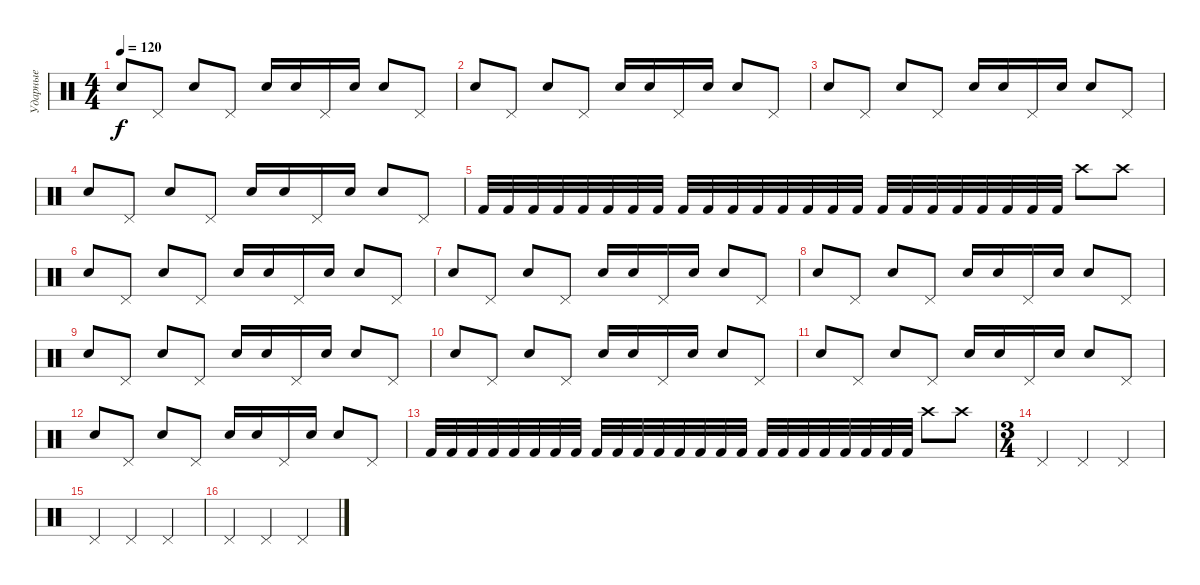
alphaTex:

\track ("Ударные" "Ударные") {instrument percussion}
\staff {score}
\articulation defaults
\ts (4 4)
\tempo 120
\clef neutral
\ks c "Snare (hit) 2".8{dy f} "Pedal Hi-Hat (hit)".8 "Snare (hit) 2".8 "Pedal Hi-Hat (hit)".8 "Snare (hit) 2".16 "Snare (hit) 2".16 "Pedal Hi-Hat (hit)".16 "Snare (hit) 2".16 "Snare (hit) 2".8 "Pedal Hi-Hat (hit)".8
|
"Snare (hit) 2".8 "Pedal Hi-Hat (hit)".8 "Snare (hit) 2".8 "Pedal Hi-Hat (hit)".8 "Snare (hit) 2".16 "Snare (hit) 2".16 "Pedal Hi-Hat (hit)".16 "Snare (hit) 2".16 "Snare (hit) 2".8 "Pedal Hi-Hat (hit)".8 |
"Snare (hit) 2".8 "Pedal Hi-Hat (hit)".8 "Snare (hit) 2".8 "Pedal Hi-Hat (hit)".8 "Snare (hit) 2".16 "Snare (hit) 2".16 "Pedal Hi-Hat (hit)".16 "Snare (hit) 2".16 "Snare (hit) 2".8 "Pedal Hi-Hat (hit)".8 |
"Snare (hit) 2".8 "Pedal Hi-Hat (hit)".8 "Snare (hit) 2".8 "Pedal Hi-Hat (hit)".8 "Snare (hit) 2".16 "Snare (hit) 2".16 "Pedal Hi-Hat (hit)".16 "Snare (hit) 2".16 "Snare (hit) 2".8 "Pedal Hi-Hat (hit)".8 |
"Kick (hit) 2".32 "Kick (hit) 2".32 "Kick (hit) 2".32 "Kick (hit) 2".32 "Kick (hit) 2".32 "Kick (hit) 2".32 "Kick (hit) 2".32 "Kick (hit) 2".32 "Kick (hit) 2".32 "Kick (hit) 2".32 "Kick (hit) 2".32 "Kick (hit) 2".32 "Kick (hit) 2".32 "Kick (hit) 2".32 "Kick (hit) 2".32 "Kick (hit) 2".32 "Kick (hit) 2".32 "Kick (hit) 2".32 "Kick (hit) 2".32 "Kick (hit) 2".32 "Kick (hit) 2".32 "Kick (hit) 2".32 "Kick (hit) 2".32 "Kick (hit) 2".32 "Crash high (hit)".8 "Crash high (hit)".8 |
"Snare (hit) 2".8 "Pedal Hi-Hat (hit)".8 "Snare (hit) 2".8 "Pedal Hi-Hat (hit)".8 "Snare (hit) 2".16 "Snare (hit) 2".16 "Pedal Hi-Hat (hit)".16 "Snare (hit) 2".16 "Snare (hit) 2".8 "Pedal Hi-Hat (hit)".8 |
"Snare (hit) 2".8 "Pedal Hi-Hat (hit)".8 "Snare (hit) 2".8 "Pedal Hi-Hat (hit)".8 "Snare (hit) 2".16 "Snare (hit) 2".16 "Pedal Hi-Hat (hit)".16 "Snare (hit) 2".16 "Snare (hit) 2".8 "Pedal Hi-Hat (hit)".8 |
"Snare (hit) 2".8 "Pedal Hi-Hat (hit)".8 "Snare (hit) 2".8 "Pedal Hi-Hat (hit)".8 "Snare (hit) 2".16 "Snare (hit) 2".16 "Pedal Hi-Hat (hit)".16 "Snare (hit) 2".16 "Snare (hit) 2".8 "Pedal Hi-Hat (hit)".8 |
"Snare (hit) 2".8 "Pedal Hi-Hat (hit)".8 "Snare (hit) 2".8 "Pedal Hi-Hat (hit)".8 "Snare (hit) 2".16 "Snare (hit) 2".16 "Pedal Hi-Hat (hit)".16 "Snare (hit) 2".16 "Snare (hit) 2".8 "Pedal Hi-Hat (hit)".8 |
"Snare (hit) 2".8 "Pedal Hi-Hat (hit)".8 "Snare (hit) 2".8 "Pedal Hi-Hat (hit)".8 "Snare (hit) 2".16 "Snare (hit) 2".16 "Pedal Hi-Hat (hit)".16 "Snare (hit) 2".16 "Snare (hit) 2".8 "Pedal Hi-Hat (hit)".8 |
"Snare (hit) 2".8 "Pedal Hi-Hat (hit)".8 "Snare (hit) 2".8 "Pedal Hi-Hat (hit)".8 "Snare (hit) 2".16 "Snare (hit) 2".16 "Pedal Hi-Hat (hit)".16 "Snare (hit) 2".16 "Snare (hit) 2".8 "Pedal Hi-Hat (hit)".8 |
"Snare (hit) 2".8 "Pedal Hi-Hat (hit)".8 "Snare (hit) 2".8 "Pedal Hi-Hat (hit)".8 "Snare (hit) 2".16 "Snare (hit) 2".16 "Pedal Hi-Hat (hit)".16 "Snare (hit) 2".16 "Snare (hit) 2".8 "Pedal Hi-Hat (hit)".8 |
"Kick (hit) 2".32 "Kick (hit) 2".32 "Kick (hit) 2".32 "Kick (hit) 2".32 "Kick (hit) 2".32 "Kick (hit) 2".32 "Kick (hit) 2".32 "Kick (hit) 2".32 "Kick (hit) 2".32 "Kick (hit) 2".32 "Kick (hit) 2".32 "Kick (hit) 2".32 "Kick (hit) 2".32 "Kick (hit) 2".32 "Kick (hit) 2".32 "Kick (hit) 2".32 "Kick (hit) 2".32 "Kick (hit) 2".32 "Kick (hit) 2".32 "Kick (hit) 2".32 "Kick (hit) 2".32 "Kick (hit) 2".32 "Kick (hit) 2".32 "Kick (hit) 2".32 "Crash high (hit)".8 "Crash high (hit)".8 |
\ts (3 4)
"Pedal Hi-Hat (hit)".4 "Pedal Hi-Hat (hit)".4 "Pedal Hi-Hat (hit)".4 |
"Pedal Hi-Hat (hit)".4 "Pedal Hi-Hat (hit)".4 "Pedal Hi-Hat (hit)".4 |
"Pedal Hi-Hat (hit)".4 "Pedal Hi-Hat (hit)".4 "Pedal Hi-Hat (hit)".4
